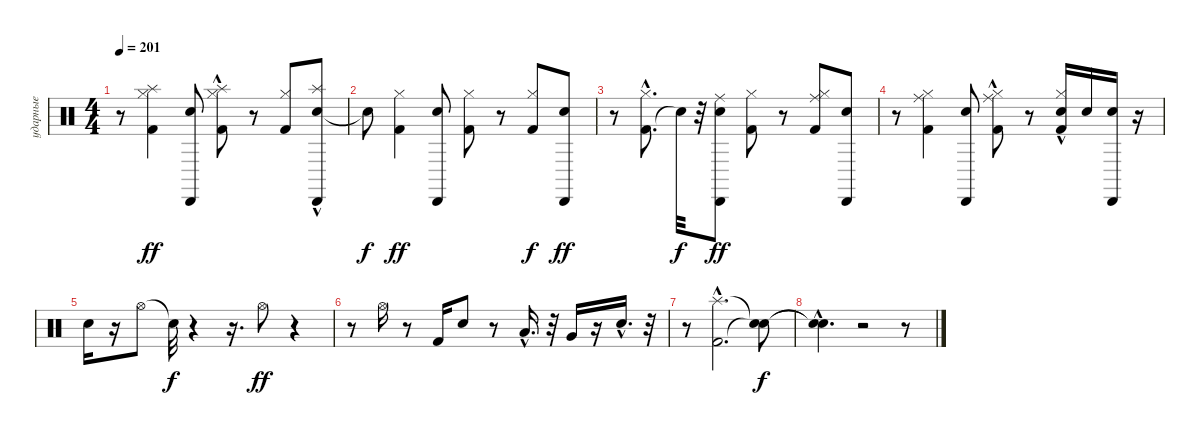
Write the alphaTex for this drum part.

\track ("ударные" "ударные") {instrument percussion}
\staff {score}
\articulation defaults
\ts (4 4)
\tempo 201
\clef neutral
\ks c
r.8{dy ff} ("Kick (hit) 2" "Hi-Hat (closed)" "Splash (hit)").4 ("Electric Snare (hit)" "Cabasa (hit)").8 ("Kick (hit) 2" "Hi-Hat (closed)" "Splash (hit)"{hac}).8 r.8 ("Kick (hit) 2" "Hi-Hat (closed)").8 ("Electric Snare (hit)" "Splash (hit)" "Cabasa (hit)"{hac}).8 |
"Snare (hit)"{t}.8{dy f} ("Kick (hit) 2" "Hi-Hat (closed)").4{dy ff} ("Electric Snare (hit)" "Cabasa (hit)").8 ("Kick (hit) 2" "Hi-Hat (closed)").8 r.8 ("Kick (hit) 2" "Hi-Hat (closed)").8{dy f} ("Electric Snare (hit)" "Cabasa (hit)").8{dy ff} |
r.8 ("Kick (hit) 2" "Hi-Hat (closed)"{hac}).8{d} "Snare (hit)"{t}.32{dy f} r.32 ("Electric Snare (hit)" "Ride (middle)" "Cabasa (hit)").8{dy ff} ("Kick (hit) 2" "Hi-Hat (closed)").8 r.8 ("Kick (hit) 2" "Hi-Hat (closed)" "Ride (middle)").8 ("Electric Snare (hit)" "Cabasa (hit)").8 |
r.8 ("Kick (hit) 2" "Hi-Hat (closed)" "Ride (middle)").4 ("Electric Snare (hit)" "Cabasa (hit)").8 ("Kick (hit) 2" "Hi-Hat (closed)"{hac} "Ride (middle)").8 r.8 ("Kick (hit) 2" "Electric Snare (hit)" "Hi-Hat (closed)"{hac}).16 "Electric Snare (hit)".16 ("Electric Snare (hit)" "Cabasa (hit)").16 r.16 |
"Electric Snare (hit)".16 r.16 "Hi-Hat (open)".8 "Snare (hit)"{t}.32{dy f} r.4 r.16{d} "Hi-Hat (open)".8{dy ff} r.4 |
r.8 "Hi-Hat (open)".16 r.8 "Kick (hit) 2".16 "Electric Snare (hit)".8 r.8 "Low Tom (hit)"{hac}.16{d} r.32 "Very Low Tom (hit)".16 r.16 "Electric Snare (hit)"{hac}.16{d} r.32 |
r.8 ("Kick (hit) 2"{hac} "Splash (hit)"{hac}).2{d} ("Snare (hit)"{t} "Snare (hit)"{t}).8{dy f} |
("Snare (hit)"{t} "Snare (hit)"{hac t}).4{d} r.2 r.8
